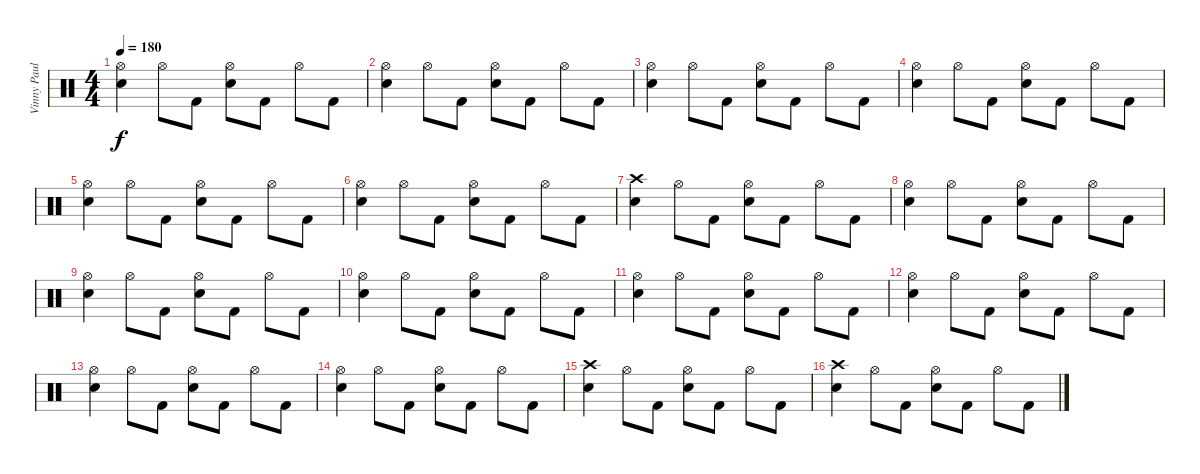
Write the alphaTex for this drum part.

\track ("Vinny Paul" "Vinny Paul") {instrument percussion}
\staff {score}
\articulation defaults
\ts (4 4)
\tempo 180
\clef neutral
\ks c
("Hi-Hat (open)" "Electric Snare (hit)").4{dy f} "Hi-Hat (open)".8 "Kick (hit) 2".8 ("Hi-Hat (open)" "Electric Snare (hit)").8 "Kick (hit) 2".8 "Hi-Hat (open)".8 "Kick (hit) 2".8 |
("Hi-Hat (open)" "Electric Snare (hit)").4 "Hi-Hat (open)".8 "Kick (hit) 2".8 ("Hi-Hat (open)" "Electric Snare (hit)").8 "Kick (hit) 2".8 "Hi-Hat (open)".8 "Kick (hit) 2".8 |
("Hi-Hat (open)" "Electric Snare (hit)").4 "Hi-Hat (open)".8 "Kick (hit) 2".8 ("Hi-Hat (open)" "Electric Snare (hit)").8 "Kick (hit) 2".8 "Hi-Hat (open)".8 "Kick (hit) 2".8 |
("Hi-Hat (open)" "Electric Snare (hit)").4 "Hi-Hat (open)".8 "Kick (hit) 2".8 ("Hi-Hat (open)" "Electric Snare (hit)").8 "Kick (hit) 2".8 "Hi-Hat (open)".8 "Kick (hit) 2".8 |
("Hi-Hat (open)" "Electric Snare (hit)").4 "Hi-Hat (open)".8 "Kick (hit) 2".8 ("Hi-Hat (open)" "Electric Snare (hit)").8 "Kick (hit) 2".8 "Hi-Hat (open)".8 "Kick (hit) 2".8 |
("Hi-Hat (open)" "Electric Snare (hit)").4 "Hi-Hat (open)".8 "Kick (hit) 2".8 ("Hi-Hat (open)" "Electric Snare (hit)").8 "Kick (hit) 2".8 "Hi-Hat (open)".8 "Kick (hit) 2".8 |
("Crash high (hit)" "Electric Snare (hit)").4 "Hi-Hat (open)".8 "Kick (hit) 2".8 ("Hi-Hat (open)" "Electric Snare (hit)").8 "Kick (hit) 2".8 "Hi-Hat (open)".8 "Kick (hit) 2".8 |
("Hi-Hat (open)" "Electric Snare (hit)").4 "Hi-Hat (open)".8 "Kick (hit) 2".8 ("Hi-Hat (open)" "Electric Snare (hit)").8 "Kick (hit) 2".8 "Hi-Hat (open)".8 "Kick (hit) 2".8 |
("Hi-Hat (open)" "Electric Snare (hit)").4 "Hi-Hat (open)".8 "Kick (hit) 2".8 ("Hi-Hat (open)" "Electric Snare (hit)").8 "Kick (hit) 2".8 "Hi-Hat (open)".8 "Kick (hit) 2".8 |
("Hi-Hat (open)" "Electric Snare (hit)").4 "Hi-Hat (open)".8 "Kick (hit) 2".8 ("Hi-Hat (open)" "Electric Snare (hit)").8 "Kick (hit) 2".8 "Hi-Hat (open)".8 "Kick (hit) 2".8 |
("Hi-Hat (open)" "Electric Snare (hit)").4 "Hi-Hat (open)".8 "Kick (hit) 2".8 ("Hi-Hat (open)" "Electric Snare (hit)").8 "Kick (hit) 2".8 "Hi-Hat (open)".8 "Kick (hit) 2".8 |
("Hi-Hat (open)" "Electric Snare (hit)").4 "Hi-Hat (open)".8 "Kick (hit) 2".8 ("Hi-Hat (open)" "Electric Snare (hit)").8 "Kick (hit) 2".8 "Hi-Hat (open)".8 "Kick (hit) 2".8 |
("Hi-Hat (open)" "Electric Snare (hit)").4 "Hi-Hat (open)".8 "Kick (hit) 2".8 ("Hi-Hat (open)" "Electric Snare (hit)").8 "Kick (hit) 2".8 "Hi-Hat (open)".8 "Kick (hit) 2".8 |
("Hi-Hat (open)" "Electric Snare (hit)").4 "Hi-Hat (open)".8 "Kick (hit) 2".8 ("Hi-Hat (open)" "Electric Snare (hit)").8 "Kick (hit) 2".8 "Hi-Hat (open)".8 "Kick (hit) 2".8 |
("Crash high (hit)" "Electric Snare (hit)").4 "Hi-Hat (open)".8 "Kick (hit) 2".8 ("Hi-Hat (open)" "Electric Snare (hit)").8 "Kick (hit) 2".8 "Hi-Hat (open)".8 "Kick (hit) 2".8 |
("Crash high (hit)" "Electric Snare (hit)").4 "Hi-Hat (open)".8 "Kick (hit) 2".8 ("Hi-Hat (open)" "Electric Snare (hit)").8 "Kick (hit) 2".8 "Hi-Hat (open)".8 "Kick (hit) 2".8
